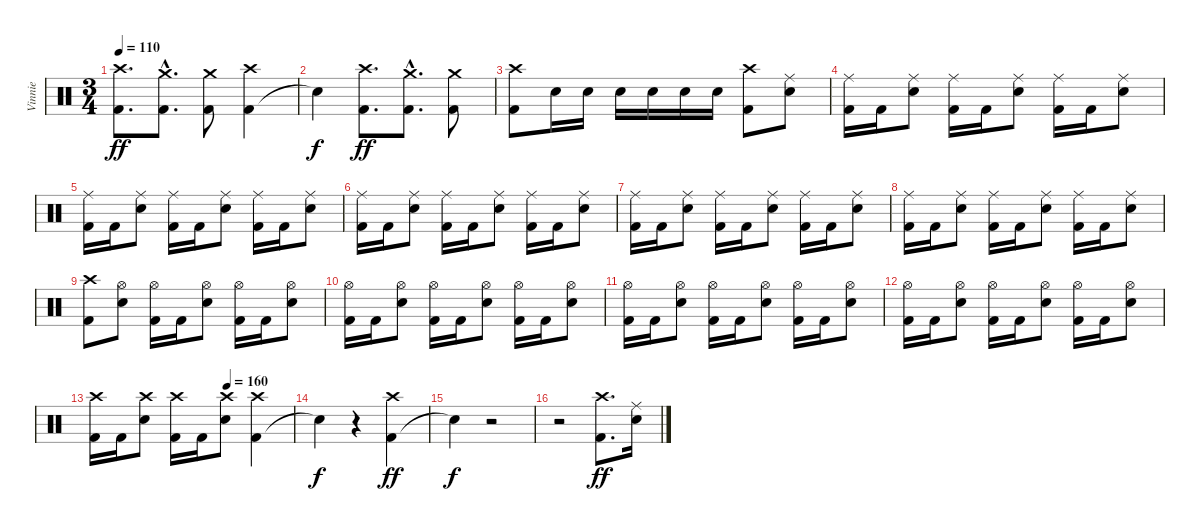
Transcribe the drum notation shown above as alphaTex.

\track ("Vinnie" "Vinnie") {instrument percussion}
\staff {score}
\articulation defaults
\ts (3 4)
\tempo 110
\clef neutral
\ks c
("Kick (hit) 2" "Crash high (hit)").8{d dy ff} ("Kick (hit) 2" "Crash medium (hit)"{hac}).8{d} ("Kick (hit) 2" "Crash medium (hit)").8 ("Kick (hit) 2" "Crash high (hit)").4 |
"Snare (hit)"{t}.4{dy f} ("Kick (hit) 2" "Crash high (hit)").8{d dy ff} ("Kick (hit) 2" "Crash medium (hit)"{hac}).8{d} ("Kick (hit) 2" "Crash medium (hit)").8 |
("Kick (hit) 2" "Crash high (hit)").8 "Electric Snare (hit)".16 "Electric Snare (hit)".16 "Electric Snare (hit)".16 "Electric Snare (hit)".16 "Electric Snare (hit)".16 "Electric Snare (hit)".16 ("Kick (hit) 2" "Crash high (hit)").8 ("Electric Snare (hit)" "Ride (middle)").8 |
("Kick (hit) 2" "Ride (middle)").16 "Kick (hit) 2".16 ("Electric Snare (hit)" "Ride (middle)").8 ("Kick (hit) 2" "Ride (middle)").16 "Kick (hit) 2".16 ("Electric Snare (hit)" "Ride (middle)").8 ("Kick (hit) 2" "Ride (middle)").16 "Kick (hit) 2".16 ("Electric Snare (hit)" "Ride (middle)").8 |
("Kick (hit) 2" "Ride (middle)").16 "Kick (hit) 2".16 ("Electric Snare (hit)" "Ride (middle)").8 ("Kick (hit) 2" "Ride (middle)").16 "Kick (hit) 2".16 ("Electric Snare (hit)" "Ride (middle)").8 ("Kick (hit) 2" "Ride (middle)").16 "Kick (hit) 2".16 ("Electric Snare (hit)" "Ride (middle)").8 |
("Kick (hit) 2" "Ride (middle)").16 "Kick (hit) 2".16 ("Electric Snare (hit)" "Ride (middle)").8 ("Kick (hit) 2" "Ride (middle)").16 "Kick (hit) 2".16 ("Electric Snare (hit)" "Ride (middle)").8 ("Kick (hit) 2" "Ride (middle)").16 "Kick (hit) 2".16 ("Electric Snare (hit)" "Ride (middle)").8 |
("Kick (hit) 2" "Ride (middle)").16 "Kick (hit) 2".16 ("Electric Snare (hit)" "Ride (middle)").8 ("Kick (hit) 2" "Ride (middle)").16 "Kick (hit) 2".16 ("Electric Snare (hit)" "Ride (middle)").8 ("Kick (hit) 2" "Ride (middle)").16 "Kick (hit) 2".16 ("Electric Snare (hit)" "Ride (middle)").8 |
("Kick (hit) 2" "Ride (middle)").16 "Kick (hit) 2".16 ("Electric Snare (hit)" "Ride (middle)").8 ("Kick (hit) 2" "Ride (middle)").16 "Kick (hit) 2".16 ("Electric Snare (hit)" "Ride (middle)").8 ("Kick (hit) 2" "Ride (middle)").16 "Kick (hit) 2".16 ("Electric Snare (hit)" "Ride (middle)").8 |
("Kick (hit) 2" "Crash high (hit)").8 ("Electric Snare (hit)" "Hi-Hat (open)").8 ("Kick (hit) 2" "Hi-Hat (open)").16 "Kick (hit) 2".16 ("Electric Snare (hit)" "Hi-Hat (open)").8 ("Kick (hit) 2" "Hi-Hat (open)").16 "Kick (hit) 2".16 ("Electric Snare (hit)" "Hi-Hat (open)").8 |
("Kick (hit) 2" "Hi-Hat (open)").16 "Kick (hit) 2".16 ("Electric Snare (hit)" "Hi-Hat (open)").8 ("Kick (hit) 2" "Hi-Hat (open)").16 "Kick (hit) 2".16 ("Electric Snare (hit)" "Hi-Hat (open)").8 ("Kick (hit) 2" "Hi-Hat (open)").16 "Kick (hit) 2".16 ("Electric Snare (hit)" "Hi-Hat (open)").8 |
("Kick (hit) 2" "Hi-Hat (open)").16 "Kick (hit) 2".16 ("Electric Snare (hit)" "Hi-Hat (open)").8 ("Kick (hit) 2" "Hi-Hat (open)").16 "Kick (hit) 2".16 ("Electric Snare (hit)" "Hi-Hat (open)").8 ("Kick (hit) 2" "Hi-Hat (open)").16 "Kick (hit) 2".16 ("Electric Snare (hit)" "Hi-Hat (open)").8 |
("Kick (hit) 2" "Hi-Hat (open)").16 "Kick (hit) 2".16 ("Electric Snare (hit)" "Hi-Hat (open)").8 ("Kick (hit) 2" "Hi-Hat (open)").16 "Kick (hit) 2".16 ("Electric Snare (hit)" "Hi-Hat (open)").8 ("Kick (hit) 2" "Hi-Hat (open)").16 "Kick (hit) 2".16 ("Electric Snare (hit)" "Hi-Hat (open)").8 |
\tempo (160 0.6666666666666666)
("Kick (hit) 2" "Crash high (hit)").16 "Kick (hit) 2".16 ("Electric Snare (hit)" "Crash high (hit)").8 ("Kick (hit) 2" "Crash high (hit)").16 "Kick (hit) 2".16 ("Electric Snare (hit)" "Crash high (hit)").8 ("Kick (hit) 2" "Crash high (hit)").4 |
"Snare (hit)"{t}.4{dy f} r.4 ("Kick (hit) 2" "Crash high (hit)").4{dy ff} |
"Snare (hit)"{t}.4{dy f} r.2 |
r.2 ("Kick (hit) 2" "Crash high (hit)").8{d dy ff} ("Electric Snare (hit)" "Ride (middle)").16
